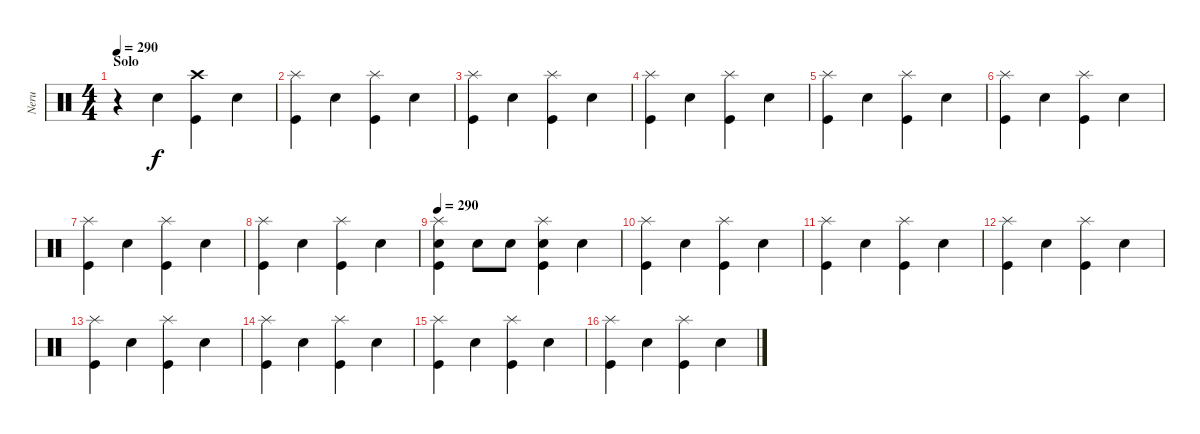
\track ("Neru" "Neru") {instrument percussion}
\staff {score}
\articulation defaults
\ts (4 4)
\section ("" "Solo")
\tempo 290
\clef neutral
\ks c
r.4{dy f} "Electric Snare (hit)".4 ("Crash high (hit)" "Kick (hit)").4 "Electric Snare (hit)".4 |
("Splash (hit)" "Kick (hit)").4 "Electric Snare (hit)".4 ("Splash (hit)" "Kick (hit)").4 "Electric Snare (hit)".4 |
("Splash (hit)" "Kick (hit)").4 "Electric Snare (hit)".4 ("Splash (hit)" "Kick (hit)").4 "Electric Snare (hit)".4 |
("Splash (hit)" "Kick (hit)").4 "Electric Snare (hit)".4 ("Splash (hit)" "Kick (hit)").4 "Electric Snare (hit)".4 |
("Splash (hit)" "Kick (hit)").4 "Electric Snare (hit)".4 ("Splash (hit)" "Kick (hit)").4 "Electric Snare (hit)".4 |
("Splash (hit)" "Kick (hit)").4 "Electric Snare (hit)".4 ("Splash (hit)" "Kick (hit)").4 "Electric Snare (hit)".4 |
("Splash (hit)" "Kick (hit)").4 "Electric Snare (hit)".4 ("Splash (hit)" "Kick (hit)").4 "Electric Snare (hit)".4 |
("Splash (hit)" "Kick (hit)").4 "Electric Snare (hit)".4 ("Splash (hit)" "Kick (hit)").4 "Electric Snare (hit)".4 |
\tempo 290
("Splash (hit)" "Electric Snare (hit)" "Kick (hit)").4 "Electric Snare (hit)".8 "Electric Snare (hit)".8 ("Splash (hit)" "Electric Snare (hit)" "Kick (hit)").4 "Electric Snare (hit)".4 |
("Splash (hit)" "Kick (hit)").4 "Electric Snare (hit)".4 ("Splash (hit)" "Kick (hit)").4 "Electric Snare (hit)".4 |
("Splash (hit)" "Kick (hit)").4 "Electric Snare (hit)".4 ("Splash (hit)" "Kick (hit)").4 "Electric Snare (hit)".4 |
("Splash (hit)" "Kick (hit)").4 "Electric Snare (hit)".4 ("Splash (hit)" "Kick (hit)").4 "Electric Snare (hit)".4 |
("Splash (hit)" "Kick (hit)").4 "Electric Snare (hit)".4 ("Splash (hit)" "Kick (hit)").4 "Electric Snare (hit)".4 |
("Splash (hit)" "Kick (hit)").4 "Electric Snare (hit)".4 ("Splash (hit)" "Kick (hit)").4 "Electric Snare (hit)".4 |
("Splash (hit)" "Kick (hit)").4 "Electric Snare (hit)".4 ("Splash (hit)" "Kick (hit)").4 "Electric Snare (hit)".4 |
("Splash (hit)" "Kick (hit)").4 "Electric Snare (hit)".4 ("Splash (hit)" "Kick (hit)").4 "Electric Snare (hit)".4
